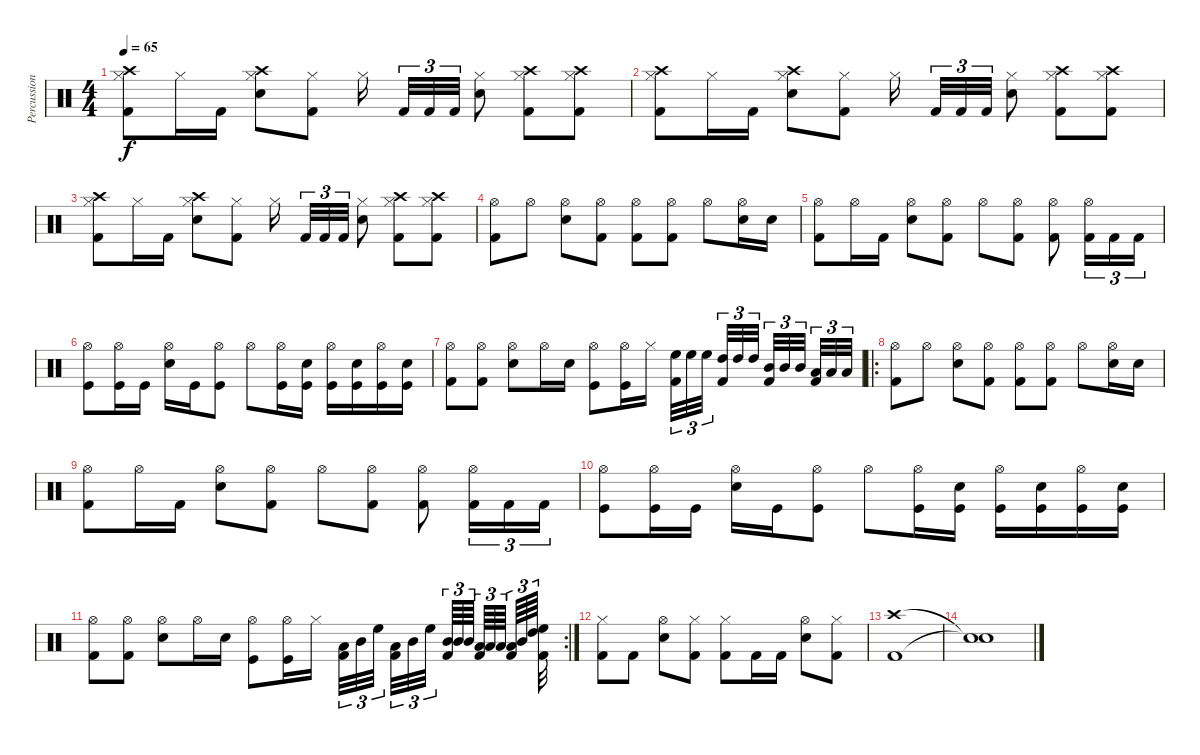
\track ("Percussion" "Percussion") {instrument percussion}
\staff {score}
\articulation defaults
\ts (4 4)
\tempo 65
\clef neutral
\ks c
("Crash high (hit)" "Hi-Hat (closed)" "Kick (hit) 2").8{dy f} "Hi-Hat (closed)".16 "Kick (hit) 2".16 ("Crash high (hit)" "Hi-Hat (closed)" "Electric Snare (hit)").8 ("Hi-Hat (closed)" "Kick (hit) 2").8 "Hi-Hat (closed)".16 "Kick (hit) 2".32{tu (3 2)} "Kick (hit) 2".32{tu (3 2)} "Kick (hit) 2".32{tu (3 2)} ("Hi-Hat (closed)" "Electric Snare (hit)").8 ("Crash high (hit)" "Hi-Hat (closed)" "Kick (hit) 2").8 ("Crash high (hit)" "Hi-Hat (closed)" "Kick (hit) 2").8 |
("Crash high (hit)" "Hi-Hat (closed)" "Kick (hit) 2").8 "Hi-Hat (closed)".16 "Kick (hit) 2".16 ("Crash high (hit)" "Hi-Hat (closed)" "Electric Snare (hit)").8 ("Hi-Hat (closed)" "Kick (hit) 2").8 "Hi-Hat (closed)".16 "Kick (hit) 2".32{tu (3 2)} "Kick (hit) 2".32{tu (3 2)} "Kick (hit) 2".32{tu (3 2)} ("Hi-Hat (closed)" "Electric Snare (hit)").8 ("Crash high (hit)" "Hi-Hat (closed)" "Kick (hit) 2").8 ("Crash high (hit)" "Hi-Hat (closed)" "Kick (hit) 2").8 |
("Crash high (hit)" "Hi-Hat (closed)" "Kick (hit) 2").8 "Hi-Hat (closed)".16 "Kick (hit) 2".16 ("Crash high (hit)" "Hi-Hat (closed)" "Electric Snare (hit)").8 ("Hi-Hat (closed)" "Kick (hit) 2").8 "Hi-Hat (closed)".16 "Kick (hit) 2".32{tu (3 2)} "Kick (hit) 2".32{tu (3 2)} "Kick (hit) 2".32{tu (3 2)} ("Hi-Hat (closed)" "Electric Snare (hit)").8 ("Crash high (hit)" "Hi-Hat (closed)" "Kick (hit) 2").8 ("Crash high (hit)" "Hi-Hat (closed)" "Kick (hit) 2").8 |
("Hi-Hat (open)" "Kick (hit) 2").8 "Hi-Hat (open)".8 ("Hi-Hat (open)" "Electric Snare (hit)").8 ("Hi-Hat (open)" "Kick (hit) 2").8 ("Hi-Hat (open)" "Kick (hit) 2").8 ("Hi-Hat (open)" "Kick (hit) 2").8 "Hi-Hat (open)".8 ("Hi-Hat (open)" "Electric Snare (hit)").16 "Electric Snare (hit)".16 |
("Hi-Hat (open)" "Kick (hit) 2").8 "Hi-Hat (open)".16 "Kick (hit) 2".16 ("Hi-Hat (open)" "Electric Snare (hit)").8 ("Hi-Hat (open)" "Kick (hit) 2").8 "Hi-Hat (open)".8 ("Hi-Hat (open)" "Kick (hit) 2").8 ("Hi-Hat (open)" "Kick (hit) 2").8 ("Hi-Hat (open)" "Kick (hit) 2").16{tu (3 2)} "Kick (hit) 2".16{tu (3 2)} "Kick (hit) 2".16{tu (3 2)} |
("Hi-Hat (open)" "Kick (hit)").8 ("Hi-Hat (open)" "Kick (hit)").16 "Kick (hit)".16 ("Hi-Hat (open)" "Electric Snare (hit)").16 "Kick (hit)".16 ("Hi-Hat (open)" "Kick (hit)").8 "Hi-Hat (open)".8 ("Hi-Hat (open)" "Kick (hit)").16 ("Electric Snare (hit)" "Kick (hit)").16 ("Hi-Hat (open)" "Kick (hit)").16 ("Electric Snare (hit)" "Kick (hit)").16 ("Hi-Hat (open)" "Kick (hit)").16 ("Electric Snare (hit)" "Kick (hit)").16 |
("Hi-Hat (open)" "Kick (hit) 2").8 ("Hi-Hat (open)" "Kick (hit) 2").8 ("Hi-Hat (open)" "Electric Snare (hit)").8 "Hi-Hat (open)".16 "Electric Snare (hit)".16 ("Hi-Hat (open)" "Kick (hit)").8 ("Hi-Hat (open)" "Kick (hit)").16 "Hi-Hat (closed)".16 ("High Floor Tom (hit)" "Kick (hit) 2").32{tu (3 2)} "High Floor Tom (hit)".32{tu (3 2)} "High Floor Tom (hit)".32{tu (3 2)} ("High Tom (hit)" "Kick (hit) 2").32{tu (3 2)} "High Tom (hit)".32{tu (3 2)} "High Tom (hit)".32{tu (3 2)} ("Mid Tom (hit)" "Kick (hit) 2").32{tu (3 2)} "Mid Tom (hit)".32{tu (3 2)} "Mid Tom (hit)".32{tu (3 2)} ("Low Tom (hit)" "Kick (hit) 2").32{tu (3 2)} "Low Tom (hit)".32{tu (3 2)} "Low Tom (hit)".32{tu (3 2)} |
\ro
("Hi-Hat (open)" "Kick (hit) 2").8 "Hi-Hat (open)".8 ("Hi-Hat (open)" "Electric Snare (hit)").8 ("Hi-Hat (open)" "Kick (hit) 2").8 ("Hi-Hat (open)" "Kick (hit) 2").8 ("Hi-Hat (open)" "Kick (hit) 2").8 "Hi-Hat (open)".8 ("Hi-Hat (open)" "Electric Snare (hit)").16 "Electric Snare (hit)".16 |
("Hi-Hat (open)" "Kick (hit) 2").8 "Hi-Hat (open)".16 "Kick (hit) 2".16 ("Hi-Hat (open)" "Electric Snare (hit)").8 ("Hi-Hat (open)" "Kick (hit) 2").8 "Hi-Hat (open)".8 ("Hi-Hat (open)" "Kick (hit) 2").8 ("Hi-Hat (open)" "Kick (hit) 2").8 ("Hi-Hat (open)" "Kick (hit) 2").16{tu (3 2)} "Kick (hit) 2".16{tu (3 2)} "Kick (hit) 2".16{tu (3 2)} |
("Hi-Hat (open)" "Kick (hit)").8 ("Hi-Hat (open)" "Kick (hit)").16 "Kick (hit)".16 ("Hi-Hat (open)" "Electric Snare (hit)").16 "Kick (hit)".16 ("Hi-Hat (open)" "Kick (hit)").8 "Hi-Hat (open)".8 ("Hi-Hat (open)" "Kick (hit)").16 ("Electric Snare (hit)" "Kick (hit)").16 ("Hi-Hat (open)" "Kick (hit)").16 ("Electric Snare (hit)" "Kick (hit)").16 ("Hi-Hat (open)" "Kick (hit)").16 ("Electric Snare (hit)" "Kick (hit)").16 |
\rc 2
("Hi-Hat (open)" "Kick (hit) 2").8 ("Hi-Hat (open)" "Kick (hit) 2").8 ("Hi-Hat (open)" "Electric Snare (hit)").8 "Hi-Hat (open)".16 "Electric Snare (hit)".16 ("Hi-Hat (open)" "Kick (hit)").8 ("Hi-Hat (open)" "Kick (hit)").16 "Hi-Hat (closed)".16 ("Low Tom (hit)" "Kick (hit) 2").32{tu (3 2)} "Mid Tom (hit)".32{tu (3 2)} "High Floor Tom (hit)".32{tu (3 2)} ("Low Tom (hit)" "Kick (hit) 2").32{tu (3 2)} "Mid Tom (hit)".32{tu (3 2)} "High Floor Tom (hit)".32{tu (3 2)} ("Mid Tom (hit)" "Kick (hit) 2").64{tu (3 2)} "Mid Tom (hit)".64{tu (3 2)} "Mid Tom (hit)".64{tu (3 2)} ("Low Tom (hit)" "Kick (hit) 2").64{tu (3 2)} "Low Tom (hit)".64{tu (3 2)} "Low Tom (hit)".64{tu (3 2)} ("Low Tom (hit)" "Kick (hit) 2").64{tu (3 2)} "Mid Tom (hit)".64{tu (3 2)} "High Tom (hit)".64{tu (3 2)} ("High Floor Tom (hit)" "Kick (hit) 2").32 |
("Hi-Hat (closed)" "Kick (hit) 2").8 "Kick (hit) 2".8 ("Hi-Hat (open)" "Electric Snare (hit)").8 ("Hi-Hat (closed)" "Kick (hit) 2").8 ("Hi-Hat (closed)" "Kick (hit) 2").8 "Kick (hit) 2".16 "Kick (hit) 2".16 ("Hi-Hat (open)" "Electric Snare (hit)").8 ("Hi-Hat (closed)" "Kick (hit) 2").8 |
("Crash high (hit)" "Kick (hit) 2").1 |
("Snare (hit)"{t} "Snare (hit)"{t}).1
